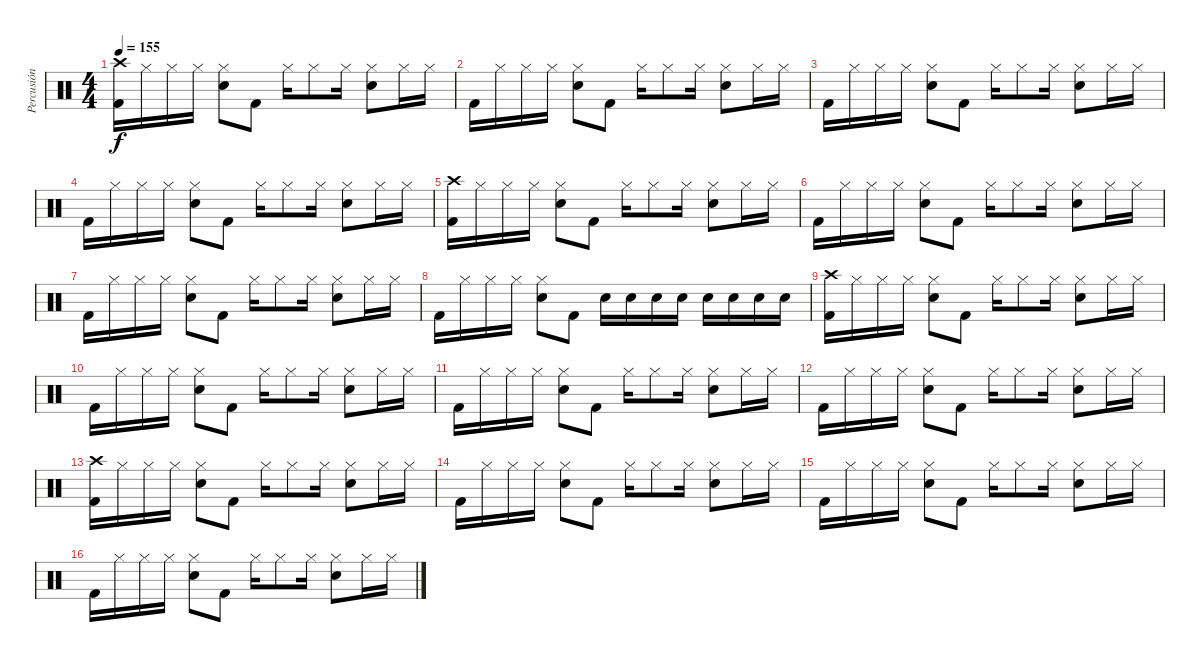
\track ("Percusión" "Percusión") {instrument percussion}
\staff {score}
\articulation defaults
\ts (4 4)
\tempo 155
\clef neutral
\ks c
("Crash high (hit)" "Kick (hit) 2").16{dy f} "Hi-Hat (closed)".16 "Hi-Hat (closed)".16 "Hi-Hat (closed)".16 ("Hi-Hat (closed)" "Snare (hit) 2").8 "Kick (hit) 2".8 "Hi-Hat (closed)".16 "Hi-Hat (closed)".8 "Hi-Hat (closed)".16 ("Hi-Hat (closed)" "Snare (hit) 2").8 "Hi-Hat (closed)".16 "Hi-Hat (closed)".16 |
"Kick (hit) 2".16 "Hi-Hat (closed)".16 "Hi-Hat (closed)".16 "Hi-Hat (closed)".16 ("Hi-Hat (closed)" "Snare (hit) 2").8 "Kick (hit) 2".8 "Hi-Hat (closed)".16 "Hi-Hat (closed)".8 "Hi-Hat (closed)".16 ("Hi-Hat (closed)" "Snare (hit) 2").8 "Hi-Hat (closed)".16 "Hi-Hat (closed)".16 |
"Kick (hit) 2".16 "Hi-Hat (closed)".16 "Hi-Hat (closed)".16 "Hi-Hat (closed)".16 ("Hi-Hat (closed)" "Snare (hit) 2").8 "Kick (hit) 2".8 "Hi-Hat (closed)".16 "Hi-Hat (closed)".8 "Hi-Hat (closed)".16 ("Hi-Hat (closed)" "Snare (hit) 2").8 "Hi-Hat (closed)".16 "Hi-Hat (closed)".16 |
"Kick (hit) 2".16 "Hi-Hat (closed)".16 "Hi-Hat (closed)".16 "Hi-Hat (closed)".16 ("Hi-Hat (closed)" "Snare (hit) 2").8 "Kick (hit) 2".8 "Hi-Hat (closed)".16 "Hi-Hat (closed)".8 "Hi-Hat (closed)".16 ("Hi-Hat (closed)" "Snare (hit) 2").8 "Hi-Hat (closed)".16 "Hi-Hat (closed)".16 |
("Crash high (hit)" "Kick (hit) 2").16 "Hi-Hat (closed)".16 "Hi-Hat (closed)".16 "Hi-Hat (closed)".16 ("Hi-Hat (closed)" "Snare (hit) 2").8 "Kick (hit) 2".8 "Hi-Hat (closed)".16 "Hi-Hat (closed)".8 "Hi-Hat (closed)".16 ("Hi-Hat (closed)" "Snare (hit) 2").8 "Hi-Hat (closed)".16 "Hi-Hat (closed)".16 |
"Kick (hit) 2".16 "Hi-Hat (closed)".16 "Hi-Hat (closed)".16 "Hi-Hat (closed)".16 ("Hi-Hat (closed)" "Snare (hit) 2").8 "Kick (hit) 2".8 "Hi-Hat (closed)".16 "Hi-Hat (closed)".8 "Hi-Hat (closed)".16 ("Hi-Hat (closed)" "Snare (hit) 2").8 "Hi-Hat (closed)".16 "Hi-Hat (closed)".16 |
"Kick (hit) 2".16 "Hi-Hat (closed)".16 "Hi-Hat (closed)".16 "Hi-Hat (closed)".16 ("Hi-Hat (closed)" "Snare (hit) 2").8 "Kick (hit) 2".8 "Hi-Hat (closed)".16 "Hi-Hat (closed)".8 "Hi-Hat (closed)".16 ("Hi-Hat (closed)" "Snare (hit) 2").8 "Hi-Hat (closed)".16 "Hi-Hat (closed)".16 |
"Kick (hit) 2".16 "Hi-Hat (closed)".16 "Hi-Hat (closed)".16 "Hi-Hat (closed)".16 ("Hi-Hat (closed)" "Snare (hit) 2").8 "Kick (hit) 2".8 "Snare (hit) 2".16 "Snare (hit) 2".16 "Snare (hit) 2".16 "Snare (hit) 2".16 "Snare (hit) 2".16 "Snare (hit) 2".16 "Snare (hit) 2".16 "Snare (hit) 2".16 |
("Crash high (hit)" "Kick (hit) 2").16 "Hi-Hat (closed)".16 "Hi-Hat (closed)".16 "Hi-Hat (closed)".16 ("Hi-Hat (closed)" "Snare (hit) 2").8 "Kick (hit) 2".8 "Hi-Hat (closed)".16 "Hi-Hat (closed)".8 "Hi-Hat (closed)".16 ("Hi-Hat (closed)" "Snare (hit) 2").8 "Hi-Hat (closed)".16 "Hi-Hat (closed)".16 |
"Kick (hit) 2".16 "Hi-Hat (closed)".16 "Hi-Hat (closed)".16 "Hi-Hat (closed)".16 ("Hi-Hat (closed)" "Snare (hit) 2").8 "Kick (hit) 2".8 "Hi-Hat (closed)".16 "Hi-Hat (closed)".8 "Hi-Hat (closed)".16 ("Hi-Hat (closed)" "Snare (hit) 2").8 "Hi-Hat (closed)".16 "Hi-Hat (closed)".16 |
"Kick (hit) 2".16 "Hi-Hat (closed)".16 "Hi-Hat (closed)".16 "Hi-Hat (closed)".16 ("Hi-Hat (closed)" "Snare (hit) 2").8 "Kick (hit) 2".8 "Hi-Hat (closed)".16 "Hi-Hat (closed)".8 "Hi-Hat (closed)".16 ("Hi-Hat (closed)" "Snare (hit) 2").8 "Hi-Hat (closed)".16 "Hi-Hat (closed)".16 |
"Kick (hit) 2".16 "Hi-Hat (closed)".16 "Hi-Hat (closed)".16 "Hi-Hat (closed)".16 ("Hi-Hat (closed)" "Snare (hit) 2").8 "Kick (hit) 2".8 "Hi-Hat (closed)".16 "Hi-Hat (closed)".8 "Hi-Hat (closed)".16 ("Hi-Hat (closed)" "Snare (hit) 2").8 "Hi-Hat (closed)".16 "Hi-Hat (closed)".16 |
("Crash high (hit)" "Kick (hit) 2").16 "Hi-Hat (closed)".16 "Hi-Hat (closed)".16 "Hi-Hat (closed)".16 ("Hi-Hat (closed)" "Snare (hit) 2").8 "Kick (hit) 2".8 "Hi-Hat (closed)".16 "Hi-Hat (closed)".8 "Hi-Hat (closed)".16 ("Hi-Hat (closed)" "Snare (hit) 2").8 "Hi-Hat (closed)".16 "Hi-Hat (closed)".16 |
"Kick (hit) 2".16 "Hi-Hat (closed)".16 "Hi-Hat (closed)".16 "Hi-Hat (closed)".16 ("Hi-Hat (closed)" "Snare (hit) 2").8 "Kick (hit) 2".8 "Hi-Hat (closed)".16 "Hi-Hat (closed)".8 "Hi-Hat (closed)".16 ("Hi-Hat (closed)" "Snare (hit) 2").8 "Hi-Hat (closed)".16 "Hi-Hat (closed)".16 |
"Kick (hit) 2".16 "Hi-Hat (closed)".16 "Hi-Hat (closed)".16 "Hi-Hat (closed)".16 ("Hi-Hat (closed)" "Snare (hit) 2").8 "Kick (hit) 2".8 "Hi-Hat (closed)".16 "Hi-Hat (closed)".8 "Hi-Hat (closed)".16 ("Hi-Hat (closed)" "Snare (hit) 2").8 "Hi-Hat (closed)".16 "Hi-Hat (closed)".16 |
"Kick (hit) 2".16 "Hi-Hat (closed)".16 "Hi-Hat (closed)".16 "Hi-Hat (closed)".16 ("Hi-Hat (closed)" "Snare (hit) 2").8 "Kick (hit) 2".8 "Hi-Hat (closed)".16 "Hi-Hat (closed)".8 "Hi-Hat (closed)".16 ("Hi-Hat (closed)" "Snare (hit) 2").8 "Hi-Hat (closed)".16 "Hi-Hat (closed)".16
